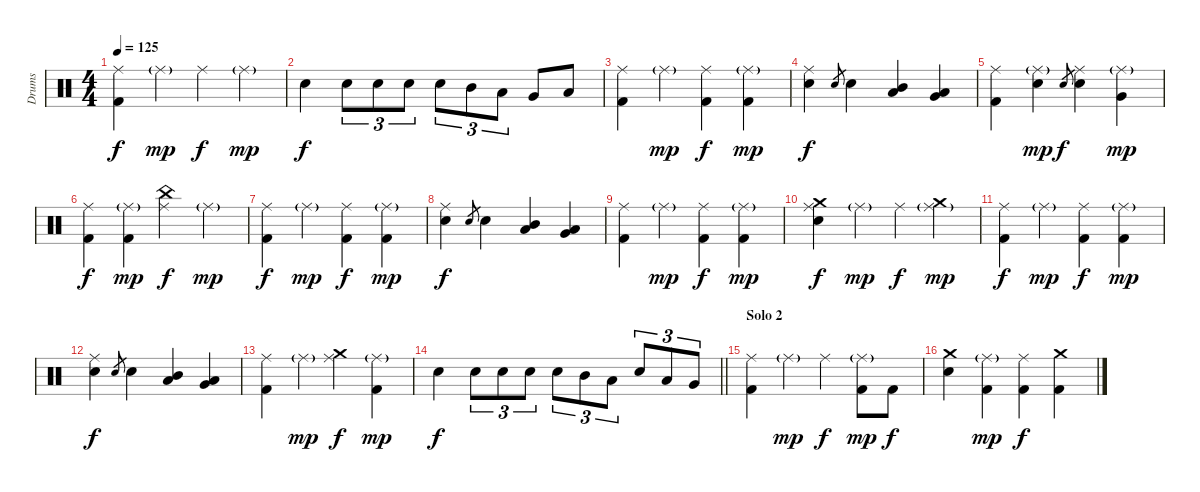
\track ("Drums" "Drums") {instrument percussion}
\staff {score}
\articulation defaults
\ts (4 4)
\tempo 125
\clef neutral
\ks c
("Ride (middle)" "Kick (hit) 2").4{dy f} "Ride (middle)"{g}.4{dy mp} "Ride (middle)".4{dy f} "Ride (middle)"{g}.4{dy mp} |
"Electric Snare (hit)".4{dy f} "Electric Snare (hit)".8{tu (3 2)} "Electric Snare (hit)".8{tu (3 2)} "Electric Snare (hit)".8{tu (3 2)} "Electric Snare (hit)".8{tu (3 2)} "Mid Tom (hit)".8{tu (3 2)} "Low Tom (hit)".8{tu (3 2)} "Very Low Tom (hit)".8 "Low Floor Tom (hit)".8 |
("Ride (middle)" "Kick (hit) 2").4 "Ride (middle)"{g}.4{dy mp} ("Ride (middle)" "Kick (hit) 2").4{dy f} ("Ride (middle)"{g} "Kick (hit) 2").4{dy mp} |
("Ride (middle)" "Electric Snare (hit)").4{dy f} "Electric Snare (hit)".8{gr} "Electric Snare (hit)".4 ("Mid Tom (hit)" "Low Tom (hit)").4 ("Low Tom (hit)" "Very Low Tom (hit)").4 |
("Ride (middle)" "Kick (hit) 2").4 ("Ride (middle)"{g} "Electric Snare (hit)").4{dy mp} "Electric Snare (hit)".8{gr dy f} ("Ride (middle)" "Electric Snare (hit)").4 ("Ride (middle)"{g} "Very Low Tom (hit)").4{dy mp} |
("Ride (middle)" "Kick (hit) 2").4{dy f} ("Ride (middle)"{g} "Kick (hit) 2").4{dy mp} ("China (hit)" "Ride (middle)").4{dy f} "Ride (middle)"{g}.4{dy mp} |
("Ride (middle)" "Kick (hit) 2").4{dy f} "Ride (middle)"{g}.4{dy mp} ("Ride (middle)" "Kick (hit) 2").4{dy f} ("Ride (middle)"{g} "Kick (hit) 2").4{dy mp} |
("Ride (middle)" "Electric Snare (hit)").4{dy f} "Electric Snare (hit)".8{gr} "Electric Snare (hit)".4 ("Mid Tom (hit)" "Low Tom (hit)").4 ("Low Tom (hit)" "Very Low Tom (hit)").4 |
("Ride (middle)" "Kick (hit) 2").4 "Ride (middle)"{g}.4{dy mp} ("Ride (middle)" "Kick (hit) 2").4{dy f} ("Ride (middle)"{g} "Kick (hit) 2").4{dy mp} |
("Crash medium (hit)" "Ride (middle)" "Electric Snare (hit)").4{dy f} "Ride (middle)"{g}.4{dy mp} "Ride (middle)".4{dy f} ("Crash medium (hit)" "Ride (middle)"{g}).4{dy mp} |
("Ride (middle)" "Kick (hit) 2").4{dy f} "Ride (middle)"{g}.4{dy mp} ("Ride (middle)" "Kick (hit) 2").4{dy f} ("Ride (middle)"{g} "Kick (hit) 2").4{dy mp} |
("Ride (middle)" "Electric Snare (hit)").4{dy f} "Electric Snare (hit)".8{gr} "Electric Snare (hit)".4 ("Mid Tom (hit)" "Low Tom (hit)").4 ("Low Tom (hit)" "Very Low Tom (hit)").4 |
("Ride (middle)" "Kick (hit) 2").4 "Ride (middle)"{g}.4{dy mp} ("Crash medium (hit)" "Ride (middle)").4{dy f} ("Ride (middle)"{g} "Kick (hit) 2").4{dy mp} |
\barLineRight lightlight "Electric Snare (hit)".4{dy f} "Electric Snare (hit)".8{tu (3 2)} "Electric Snare (hit)".8{tu (3 2)} "Electric Snare (hit)".8{tu (3 2)} "Electric Snare (hit)".8{tu (3 2)} "Mid Tom (hit)".8{tu (3 2)} "Low Tom (hit)".8{tu (3 2)} "Electric Snare (hit)".8{tu (3 2)} "Low Tom (hit)".8{tu (3 2)} "Very Low Tom (hit)".8{tu (3 2)}
|
\section ("" "Solo 2")
("Ride (middle)" "Kick (hit) 2").4 "Ride (middle)"{g}.4{dy mp} "Ride (middle)".4{dy f} ("Ride (middle)"{g} "Kick (hit) 2").8{dy mp} "Kick (hit) 2".8{dy f} |
("Crash medium (hit)" "Electric Snare (hit)").4 ("Ride (middle)"{g} "Kick (hit) 2").4{dy mp} ("Ride (middle)" "Kick (hit) 2").4{dy f} ("Crash medium (hit)" "Kick (hit) 2").4
